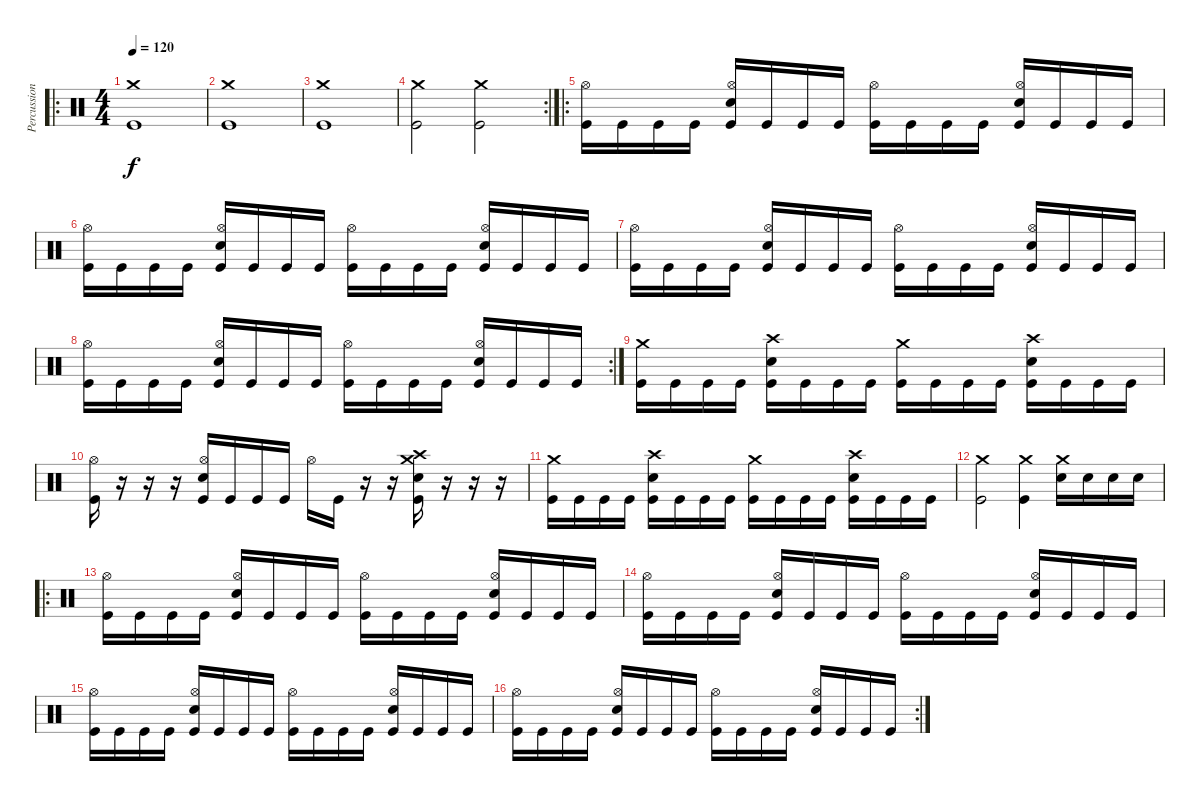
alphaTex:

\track ("Percussion" "Percussion") {instrument percussion}
\staff {score}
\articulation defaults
\ro
\ts (4 4)
\tempo 120
\clef neutral
\ks c
("Crash medium (hit)" "Kick (hit)").1{dy f} |
("Crash medium (hit)" "Kick (hit)").1 |
("Crash medium (hit)" "Kick (hit)").1 |
\rc 2
("Crash medium (hit)" "Kick (hit)").2 ("Crash medium (hit)" "Kick (hit)").2 |
\ro
("Hi-Hat (open)" "Kick (hit)").16 "Kick (hit)".16 "Kick (hit)".16 "Kick (hit)".16 ("Hi-Hat (open)" "Snare (hit) 2" "Kick (hit)").16 "Kick (hit)".16 "Kick (hit)".16 "Kick (hit)".16 ("Hi-Hat (open)" "Kick (hit)").16 "Kick (hit)".16 "Kick (hit)".16 "Kick (hit)".16 ("Hi-Hat (open)" "Snare (hit) 2" "Kick (hit)").16 "Kick (hit)".16 "Kick (hit)".16 "Kick (hit)".16 |
("Hi-Hat (open)" "Kick (hit)").16 "Kick (hit)".16 "Kick (hit)".16 "Kick (hit)".16 ("Hi-Hat (open)" "Snare (hit) 2" "Kick (hit)").16 "Kick (hit)".16 "Kick (hit)".16 "Kick (hit)".16 ("Hi-Hat (open)" "Kick (hit)").16 "Kick (hit)".16 "Kick (hit)".16 "Kick (hit)".16 ("Hi-Hat (open)" "Snare (hit) 2" "Kick (hit)").16 "Kick (hit)".16 "Kick (hit)".16 "Kick (hit)".16 |
("Hi-Hat (open)" "Kick (hit)").16 "Kick (hit)".16 "Kick (hit)".16 "Kick (hit)".16 ("Hi-Hat (open)" "Snare (hit) 2" "Kick (hit)").16 "Kick (hit)".16 "Kick (hit)".16 "Kick (hit)".16 ("Hi-Hat (open)" "Kick (hit)").16 "Kick (hit)".16 "Kick (hit)".16 "Kick (hit)".16 ("Hi-Hat (open)" "Snare (hit) 2" "Kick (hit)").16 "Kick (hit)".16 "Kick (hit)".16 "Kick (hit)".16 |
\rc 2
("Hi-Hat (open)" "Kick (hit)").16 "Kick (hit)".16 "Kick (hit)".16 "Kick (hit)".16 ("Hi-Hat (open)" "Snare (hit) 2" "Kick (hit)").16 "Kick (hit)".16 "Kick (hit)".16 "Kick (hit)".16 ("Hi-Hat (open)" "Kick (hit)").16 "Kick (hit)".16 "Kick (hit)".16 "Kick (hit)".16 ("Hi-Hat (open)" "Snare (hit) 2" "Kick (hit)").16 "Kick (hit)".16 "Kick (hit)".16 "Kick (hit)".16 |
("Crash medium (hit)" "Kick (hit)").16 "Kick (hit)".16 "Kick (hit)".16 "Kick (hit)".16 ("Crash high (hit)" "Snare (hit) 2" "Kick (hit)").16 "Kick (hit)".16 "Kick (hit)".16 "Kick (hit)".16 ("Crash medium (hit)" "Kick (hit)").16 "Kick (hit)".16 "Kick (hit)".16 "Kick (hit)".16 ("Crash high (hit)" "Snare (hit) 2" "Kick (hit)").16 "Kick (hit)".16 "Kick (hit)".16 "Kick (hit)".16 |
("Hi-Hat (open)" "Kick (hit)").16 r.16 r.16 r.16 ("Hi-Hat (open)" "Snare (hit) 2" "Kick (hit)").16 "Kick (hit)".16 "Kick (hit)".16 "Kick (hit)".16 "Hi-Hat (open)".16 "Kick (hit)".16 r.16 r.16 ("Crash medium (hit)" "Crash high (hit)" "Snare (hit) 2" "Kick (hit)").16 r.16 r.16 r.16 |
("Crash medium (hit)" "Kick (hit)").16 "Kick (hit)".16 "Kick (hit)".16 "Kick (hit)".16 ("Crash high (hit)" "Snare (hit) 2" "Kick (hit)").16 "Kick (hit)".16 "Kick (hit)".16 "Kick (hit)".16 ("Crash medium (hit)" "Kick (hit)").16 "Kick (hit)".16 "Kick (hit)".16 "Kick (hit)".16 ("Crash high (hit)" "Snare (hit) 2" "Kick (hit)").16 "Kick (hit)".16 "Kick (hit)".16 "Kick (hit)".16 |
("Crash medium (hit)" "Kick (hit)").2 ("Crash medium (hit)" "Kick (hit)").4 ("Crash medium (hit)" "Snare (hit) 2").16 "Snare (hit) 2".16 "Snare (hit) 2".16 "Snare (hit) 2".16 |
\ro
("Hi-Hat (open)" "Kick (hit)").16 "Kick (hit)".16 "Kick (hit)".16 "Kick (hit)".16 ("Hi-Hat (open)" "Snare (hit) 2" "Kick (hit)").16 "Kick (hit)".16 "Kick (hit)".16 "Kick (hit)".16 ("Hi-Hat (open)" "Kick (hit)").16 "Kick (hit)".16 "Kick (hit)".16 "Kick (hit)".16 ("Hi-Hat (open)" "Snare (hit) 2" "Kick (hit)").16 "Kick (hit)".16 "Kick (hit)".16 "Kick (hit)".16 |
("Hi-Hat (open)" "Kick (hit)").16 "Kick (hit)".16 "Kick (hit)".16 "Kick (hit)".16 ("Hi-Hat (open)" "Snare (hit) 2" "Kick (hit)").16 "Kick (hit)".16 "Kick (hit)".16 "Kick (hit)".16 ("Hi-Hat (open)" "Kick (hit)").16 "Kick (hit)".16 "Kick (hit)".16 "Kick (hit)".16 ("Hi-Hat (open)" "Snare (hit) 2" "Kick (hit)").16 "Kick (hit)".16 "Kick (hit)".16 "Kick (hit)".16 |
("Hi-Hat (open)" "Kick (hit)").16 "Kick (hit)".16 "Kick (hit)".16 "Kick (hit)".16 ("Hi-Hat (open)" "Snare (hit) 2" "Kick (hit)").16 "Kick (hit)".16 "Kick (hit)".16 "Kick (hit)".16 ("Hi-Hat (open)" "Kick (hit)").16 "Kick (hit)".16 "Kick (hit)".16 "Kick (hit)".16 ("Hi-Hat (open)" "Snare (hit) 2" "Kick (hit)").16 "Kick (hit)".16 "Kick (hit)".16 "Kick (hit)".16 |
\rc 2
("Hi-Hat (open)" "Kick (hit)").16 "Kick (hit)".16 "Kick (hit)".16 "Kick (hit)".16 ("Hi-Hat (open)" "Snare (hit) 2" "Kick (hit)").16 "Kick (hit)".16 "Kick (hit)".16 "Kick (hit)".16 ("Hi-Hat (open)" "Kick (hit)").16 "Kick (hit)".16 "Kick (hit)".16 "Kick (hit)".16 ("Hi-Hat (open)" "Snare (hit) 2" "Kick (hit)").16 "Kick (hit)".16 "Kick (hit)".16 "Kick (hit)".16
